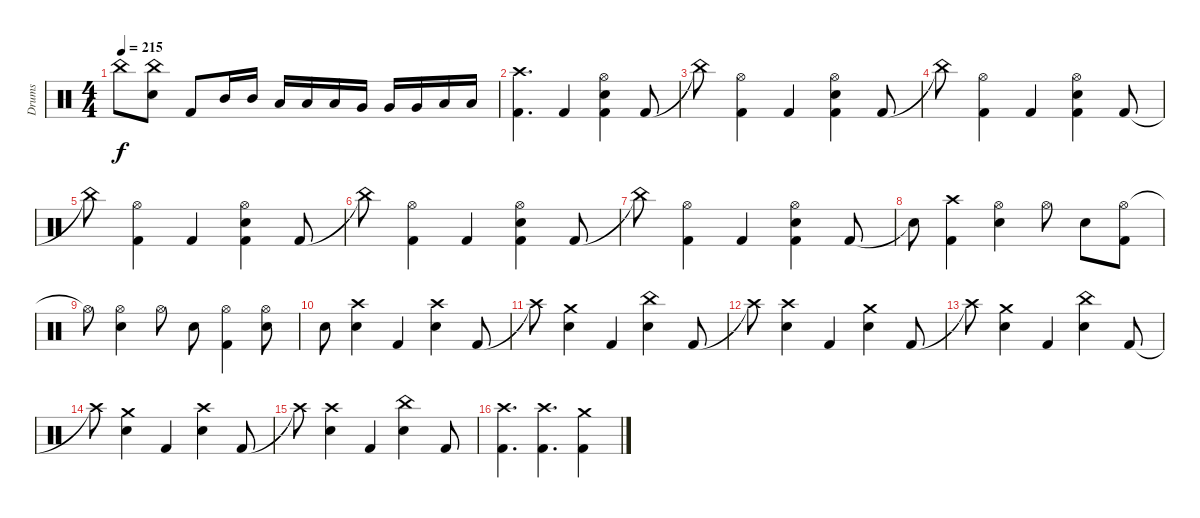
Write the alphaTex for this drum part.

\track ("Drums" "Drums") {instrument percussion}
\staff {score}
\articulation defaults
\ts (4 4)
\tempo 215
\clef neutral
\ks c "China (hit)"{t}.8{dy f}
("China (hit)" "Snare (hit) 2").8 "Kick (hit) 2".8 "Mid Tom (hit)".16 "Mid Tom (hit)".16 "Low Tom (hit)".16 "Low Tom (hit)".16 "Low Tom (hit)".16 "Very Low Tom (hit)".16 "Very Low Tom (hit)".16 "Very Low Tom (hit)".16 "Low Floor Tom (hit)".16 "Low Floor Tom (hit)".16 |
("Crash high (hit)" "Kick (hit) 2").4{d} "Kick (hit) 2".4 ("Hi-Hat (open)" "Snare (hit) 2" "Kick (hit) 2").4 "Kick (hit) 2".8 |
"China (hit)"{t}.8 ("Hi-Hat (open)" "Kick (hit) 2").4 "Kick (hit) 2".4 ("Hi-Hat (open)" "Snare (hit) 2" "Kick (hit) 2").4 "Kick (hit) 2".8 |
"China (hit)"{t}.8 ("Hi-Hat (open)" "Kick (hit) 2").4 "Kick (hit) 2".4 ("Hi-Hat (open)" "Snare (hit) 2" "Kick (hit) 2").4 "Kick (hit) 2".8 |
"China (hit)"{t}.8 ("Hi-Hat (open)" "Kick (hit) 2").4 "Kick (hit) 2".4 ("Hi-Hat (open)" "Snare (hit) 2" "Kick (hit) 2").4 "Kick (hit) 2".8 |
"China (hit)"{t}.8 ("Hi-Hat (open)" "Kick (hit) 2").4 "Kick (hit) 2".4 ("Hi-Hat (open)" "Snare (hit) 2" "Kick (hit) 2").4 "Kick (hit) 2".8 |
"China (hit)"{t}.8 ("Hi-Hat (open)" "Kick (hit) 2").4 "Kick (hit) 2".4 ("Hi-Hat (open)" "Snare (hit) 2" "Kick (hit) 2").4 "Kick (hit) 2".8 |
"Snare (hit)"{t}.8 ("Crash high (hit)" "Kick (hit) 2").4 ("Hi-Hat (open)" "Snare (hit) 2").4 "Hi-Hat (open)".8 "Snare (hit) 2".8 ("Hi-Hat (open)" "Kick (hit) 2").8 |
"Hi-Hat (open)"{t}.8 ("Hi-Hat (open)" "Snare (hit) 2").4 "Hi-Hat (open)".8 "Snare (hit) 2".8 ("Hi-Hat (open)" "Kick (hit) 2").4 ("Hi-Hat (open)" "Snare (hit) 2").8 |
"Snare (hit) 2".8 ("Crash high (hit)" "Snare (hit) 2").4 "Kick (hit) 2".4 ("Crash high (hit)" "Snare (hit) 2").4 "Kick (hit) 2".8 |
"Crash high (hit)"{t}.8 ("Crash medium (hit)" "Snare (hit) 2").4 "Kick (hit) 2".4 ("China (hit)" "Snare (hit) 2").4 "Kick (hit) 2".8 |
"Crash high (hit)"{t}.8 ("Crash high (hit)" "Snare (hit) 2").4 "Kick (hit) 2".4 ("Crash medium (hit)" "Snare (hit) 2").4 "Kick (hit) 2".8 |
"Crash high (hit)"{t}.8 ("Crash medium (hit)" "Snare (hit) 2").4 "Kick (hit) 2".4 ("China (hit)" "Snare (hit) 2").4 "Kick (hit) 2".8 |
"Crash high (hit)"{t}.8 ("Crash medium (hit)" "Snare (hit) 2").4 "Kick (hit) 2".4 ("Crash high (hit)" "Snare (hit) 2").4 "Kick (hit) 2".8 |
"Crash high (hit)"{t}.8 ("Crash high (hit)" "Snare (hit) 2").4 "Kick (hit) 2".4 ("China (hit)" "Snare (hit) 2").4 "Kick (hit) 2".8 |
("Crash high (hit)" "Kick (hit) 2").4{d} ("Crash high (hit)" "Kick (hit) 2").4{d} ("Crash medium (hit)" "Kick (hit) 2").4
